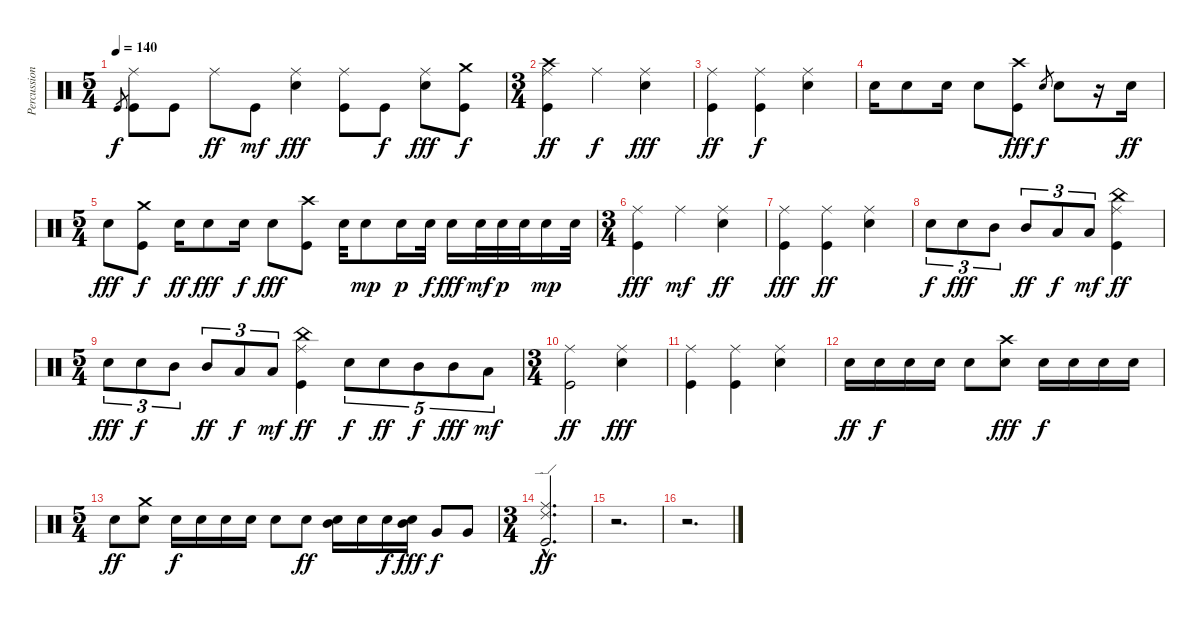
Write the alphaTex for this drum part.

\track ("Percussion" "Percussion") {instrument percussion}
\staff {score}
\articulation defaults
\ts (5 4)
\tempo 140
\clef neutral
\ks c "Kick (hit)".8{gr dy f}
("Ride (middle)" "Kick (hit)").8 "Kick (hit)".8 "Ride (middle)".8{dy ff} "Kick (hit)".8{dy mf} ("Electric Snare (hit)" "Ride (middle)").4{dy fff} ("Ride (middle)" "Kick (hit)").8 "Kick (hit)".8{dy f} ("Electric Snare (hit)" "Ride (middle)").8{dy fff} ("Kick (hit)" "Crash medium (hit)").8{dy f} |
\ts (3 4)
("Crash high (hit)" "Ride (middle)" "Kick (hit)").4{dy ff} "Ride (middle)".4{dy f} ("Ride (middle)" "Electric Snare (hit)").4{dy fff} |
("Ride (middle)" "Kick (hit)").4{dy ff} ("Ride (middle)" "Kick (hit)").4{dy f} ("Ride (middle)" "Electric Snare (hit)").4 |
"Electric Snare (hit)".16 "Electric Snare (hit)".8 "Electric Snare (hit)".16 "Electric Snare (hit)".8 ("Kick (hit)" "Crash high (hit)").8{dy fff} "Electric Snare (hit)".8{gr dy f} "Electric Snare (hit)".8 r.16 "Electric Snare (hit)".16{dy ff} |
\ts (5 4)
"Electric Snare (hit)".8{dy fff} ("Crash medium (hit)" "Kick (hit)").8{dy f} "Electric Snare (hit)".16{dy ff} "Electric Snare (hit)".8{dy fff} "Electric Snare (hit)".16{dy f} "Electric Snare (hit)".8{dy fff} ("Crash high (hit)" "Kick (hit)").8 "Electric Snare (hit)".32 "Electric Snare (hit)".8{dy mp} "Electric Snare (hit)".16{dy p} "Electric Snare (hit)".32{dy f} "Electric Snare (hit)".16{dy fff} "Electric Snare (hit)".32{dy mf} "Electric Snare (hit)".32{dy p} "Electric Snare (hit)".32 "Electric Snare (hit)".16{dy mp} "Electric Snare (hit)".32 |
\ts (3 4)
("Ride (middle)" "Kick (hit)").4{dy fff} "Ride (middle)".4{dy mf} ("Electric Snare (hit)" "Ride (middle)").4{dy ff} |
("Ride (middle)" "Kick (hit)").4{dy fff} ("Ride (middle)" "Kick (hit)").4{dy ff} ("Electric Snare (hit)" "Ride (middle)").4 |
"Electric Snare (hit)".8{tu (3 2) dy f} "Electric Snare (hit)".8{tu (3 2) dy fff} "Mid Tom (hit)".8{tu (3 2)} "Mid Tom (hit)".8{tu (3 2) dy ff} "Low Tom (hit)".8{tu (3 2) dy f} "Low Tom (hit)".8{tu (3 2) dy mf} ("China (hit)" "Ride (middle)" "Kick (hit)").4{dy ff} |
\ts (5 4)
"Electric Snare (hit)".8{tu (3 2) dy fff} "Electric Snare (hit)".8{tu (3 2) dy f} "Mid Tom (hit)".8{tu (3 2)} "Mid Tom (hit)".8{tu (3 2) dy ff} "Low Tom (hit)".8{tu (3 2) dy f} "Low Tom (hit)".8{tu (3 2) dy mf} ("China (hit)" "Ride (middle)" "Kick (hit)").4{dy ff} "Electric Snare (hit)".8{tu (5 4) dy f} "Electric Snare (hit)".8{tu (5 4) dy ff} "Mid Tom (hit)".8{tu (5 4) dy f} "Mid Tom (hit)".8{tu (5 4) dy fff} "Low Tom (hit)".8{tu (5 4) dy mf} |
\ts (3 4)
("Ride (middle)" "Kick (hit)").2{dy ff} ("Ride (middle)" "Electric Snare (hit)").4{dy fff} |
("Ride (middle)" "Kick (hit)").4 ("Ride (middle)" "Kick (hit)").4 ("Ride (middle)" "Electric Snare (hit)").4 |
"Electric Snare (hit)".16{dy ff} "Electric Snare (hit)".16{dy f} "Electric Snare (hit)".16 "Electric Snare (hit)".16 "Electric Snare (hit)".8 ("Crash high (hit)" "Electric Snare (hit)").8{dy fff} "Electric Snare (hit)".16{dy f} "Electric Snare (hit)".16 "Electric Snare (hit)".16 "Electric Snare (hit)".16 |
\ts (5 4)
"Electric Snare (hit)".8{dy ff} ("Electric Snare (hit)" "Crash medium (hit)").8 "Electric Snare (hit)".16{dy f} "Electric Snare (hit)".16 "Electric Snare (hit)".16 "Electric Snare (hit)".16 "Electric Snare (hit)".8 "Electric Snare (hit)".8{dy ff} ("Electric Snare (hit)" "Mid Tom (hit)").16 "Electric Snare (hit)".16 "Electric Snare (hit)".16{dy f} ("Electric Snare (hit)" "Mid Tom (hit)").16{dy fff} "Very Low Tom (hit)".8{dy f} "Very Low Tom (hit)".8 |
\ts (3 4)
("Ride (edge) 2"{hac} "Ride (middle)"{hac} "Kick (hit)"{hac}).2{d dy ff} |
r.2{d} |
r.2{d}
